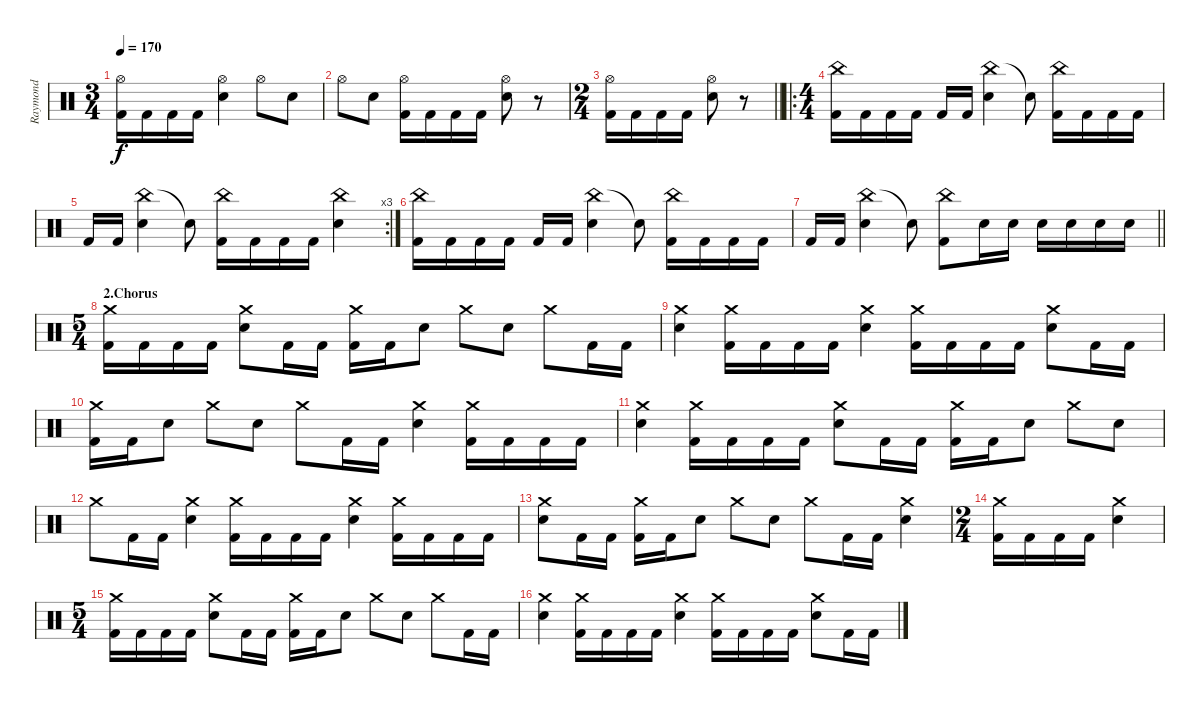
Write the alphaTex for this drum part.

\track ("Raymond" "Raymond") {instrument percussion}
\staff {score}
\articulation defaults
\ts (3 4)
\tempo 170
\clef neutral
\ks c
("Hi-Hat (open)" "Kick (hit) 2").16{dy f} "Kick (hit) 2".16 "Kick (hit) 2".16 "Kick (hit) 2".16 ("Hi-Hat (open)" "Electric Snare (hit)").4 "Hi-Hat (open)".8 "Electric Snare (hit)".8 |
"Hi-Hat (open)".8 "Electric Snare (hit)".8 ("Hi-Hat (open)" "Kick (hit) 2").16 "Kick (hit) 2".16 "Kick (hit) 2".16 "Kick (hit) 2".16 ("Hi-Hat (open)" "Electric Snare (hit)").8 r.8 |
\ts (2 4)
\barLineRight lightlight
("Hi-Hat (open)" "Kick (hit) 2").16 "Kick (hit) 2".16 "Kick (hit) 2".16 "Kick (hit) 2".16 ("Hi-Hat (open)" "Electric Snare (hit)").8 r.8 |
\ro
\ts (4 4)
\section ("" "")
("China (hit)" "Kick (hit) 2").16 "Kick (hit) 2".16 "Kick (hit) 2".16 "Kick (hit) 2".16 "Kick (hit) 2".16 "Kick (hit) 2".16 ("China (hit)" "Electric Snare (hit)").4 "Snare (hit)"{t}.8 ("China (hit)" "Kick (hit) 2").16 "Kick (hit) 2".16 "Kick (hit) 2".16 "Kick (hit) 2".16 |
\rc 3 "Kick (hit) 2".16 "Kick (hit) 2".16
("China (hit)" "Electric Snare (hit)").4 "Snare (hit)"{t}.8 ("China (hit)" "Kick (hit) 2").16 "Kick (hit) 2".16 "Kick (hit) 2".16 "Kick (hit) 2".16 ("China (hit)" "Electric Snare (hit)").4 |
("China (hit)" "Kick (hit) 2").16 "Kick (hit) 2".16 "Kick (hit) 2".16 "Kick (hit) 2".16 "Kick (hit) 2".16 "Kick (hit) 2".16 ("China (hit)" "Electric Snare (hit)").4 "Snare (hit)"{t}.8 ("China (hit)" "Kick (hit) 2").16 "Kick (hit) 2".16 "Kick (hit) 2".16 "Kick (hit) 2".16 |
\barLineRight lightlight "Kick (hit) 2".16 "Kick (hit) 2".16
("China (hit)" "Electric Snare (hit)").4 "Snare (hit)"{t}.8 ("China (hit)" "Kick (hit) 2").8 "Electric Snare (hit)".16 "Electric Snare (hit)".16 "Electric Snare (hit)".16 "Electric Snare (hit)".16 "Electric Snare (hit)".16 "Electric Snare (hit)".16 |
\ts (5 4)
\section ("" "2.Chorus")
("Crash medium (hit)" "Kick (hit) 2").16 "Kick (hit) 2".16 "Kick (hit) 2".16 "Kick (hit) 2".16 ("Crash medium (hit)" "Electric Snare (hit)").8 "Kick (hit) 2".16 "Kick (hit) 2".16 ("Crash medium (hit)" "Kick (hit) 2").16 "Kick (hit) 2".16 "Electric Snare (hit)".8 "Crash medium (hit)".8 "Electric Snare (hit)".8 "Crash medium (hit)".8 "Kick (hit) 2".16 "Kick (hit) 2".16 |
("Crash medium (hit)" "Electric Snare (hit)").4 ("Crash medium (hit)" "Kick (hit) 2").16 "Kick (hit) 2".16 "Kick (hit) 2".16 "Kick (hit) 2".16 ("Crash medium (hit)" "Electric Snare (hit)").4 ("Crash medium (hit)" "Kick (hit) 2").16 "Kick (hit) 2".16 "Kick (hit) 2".16 "Kick (hit) 2".16 ("Crash medium (hit)" "Electric Snare (hit)").8 "Kick (hit) 2".16 "Kick (hit) 2".16 |
("Crash medium (hit)" "Kick (hit) 2").16 "Kick (hit) 2".16 "Electric Snare (hit)".8 "Crash medium (hit)".8 "Electric Snare (hit)".8 "Crash medium (hit)".8 "Kick (hit) 2".16 "Kick (hit) 2".16 ("Crash medium (hit)" "Electric Snare (hit)").4 ("Crash medium (hit)" "Kick (hit) 2").16 "Kick (hit) 2".16 "Kick (hit) 2".16 "Kick (hit) 2".16 |
("Crash medium (hit)" "Electric Snare (hit)").4 ("Crash medium (hit)" "Kick (hit) 2").16 "Kick (hit) 2".16 "Kick (hit) 2".16 "Kick (hit) 2".16 ("Crash medium (hit)" "Electric Snare (hit)").8 "Kick (hit) 2".16 "Kick (hit) 2".16 ("Crash medium (hit)" "Kick (hit) 2").16 "Kick (hit) 2".16 "Electric Snare (hit)".8 "Crash medium (hit)".8 "Electric Snare (hit)".8 |
"Crash medium (hit)".8 "Kick (hit) 2".16 "Kick (hit) 2".16 ("Crash medium (hit)" "Electric Snare (hit)").4 ("Crash medium (hit)" "Kick (hit) 2").16 "Kick (hit) 2".16 "Kick (hit) 2".16 "Kick (hit) 2".16 ("Crash medium (hit)" "Electric Snare (hit)").4 ("Crash medium (hit)" "Kick (hit) 2").16 "Kick (hit) 2".16 "Kick (hit) 2".16 "Kick (hit) 2".16 |
("Crash medium (hit)" "Electric Snare (hit)").8 "Kick (hit) 2".16 "Kick (hit) 2".16 ("Crash medium (hit)" "Kick (hit) 2").16 "Kick (hit) 2".16 "Electric Snare (hit)".8 "Crash medium (hit)".8 "Electric Snare (hit)".8 "Crash medium (hit)".8 "Kick (hit) 2".16 "Kick (hit) 2".16 ("Crash medium (hit)" "Electric Snare (hit)").4 |
\ts (2 4)
("Crash medium (hit)" "Kick (hit) 2").16 "Kick (hit) 2".16 "Kick (hit) 2".16 "Kick (hit) 2".16 ("Crash medium (hit)" "Electric Snare (hit)").4 |
\ts (5 4)
("Crash medium (hit)" "Kick (hit) 2").16 "Kick (hit) 2".16 "Kick (hit) 2".16 "Kick (hit) 2".16 ("Crash medium (hit)" "Electric Snare (hit)").8 "Kick (hit) 2".16 "Kick (hit) 2".16 ("Crash medium (hit)" "Kick (hit) 2").16 "Kick (hit) 2".16 "Electric Snare (hit)".8 "Crash medium (hit)".8 "Electric Snare (hit)".8 "Crash medium (hit)".8 "Kick (hit) 2".16 "Kick (hit) 2".16 |
("Crash medium (hit)" "Electric Snare (hit)").4 ("Crash medium (hit)" "Kick (hit) 2").16 "Kick (hit) 2".16 "Kick (hit) 2".16 "Kick (hit) 2".16 ("Crash medium (hit)" "Electric Snare (hit)").4 ("Crash medium (hit)" "Kick (hit) 2").16 "Kick (hit) 2".16 "Kick (hit) 2".16 "Kick (hit) 2".16 ("Crash medium (hit)" "Electric Snare (hit)").8 "Kick (hit) 2".16 "Kick (hit) 2".16
